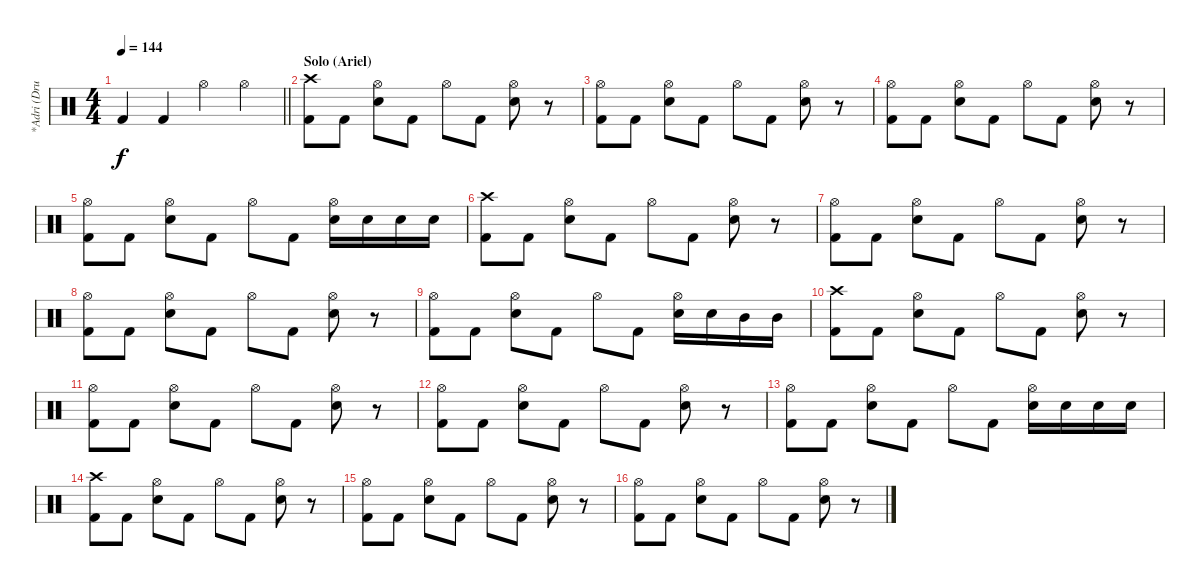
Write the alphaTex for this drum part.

\track ("*Adri (Drum)" "*Adri (Dru") {instrument percussion}
\staff {score}
\articulation defaults
\ts (4 4)
\tempo 144
\clef neutral
\barLineRight lightlight
\ks c "Kick (hit) 2".4{dy f} "Kick (hit) 2".4 "Hi-Hat (open)".4 "Hi-Hat (open)".4
|
\section ("" "Solo (Ariel)")
("Crash high (hit)" "Kick (hit) 2").8 "Kick (hit) 2".8 ("Hi-Hat (open)" "Electric Snare (hit)").8 "Kick (hit) 2".8 "Hi-Hat (open)".8 "Kick (hit) 2".8 ("Hi-Hat (open)" "Electric Snare (hit)").8 r.8 |
("Hi-Hat (open)" "Kick (hit) 2").8 "Kick (hit) 2".8 ("Hi-Hat (open)" "Electric Snare (hit)").8 "Kick (hit) 2".8 "Hi-Hat (open)".8 "Kick (hit) 2".8 ("Hi-Hat (open)" "Electric Snare (hit)").8 r.8 |
("Hi-Hat (open)" "Kick (hit) 2").8 "Kick (hit) 2".8 ("Hi-Hat (open)" "Electric Snare (hit)").8 "Kick (hit) 2".8 "Hi-Hat (open)".8 "Kick (hit) 2".8 ("Hi-Hat (open)" "Electric Snare (hit)").8 r.8 |
("Hi-Hat (open)" "Kick (hit) 2").8 "Kick (hit) 2".8 ("Hi-Hat (open)" "Electric Snare (hit)").8 "Kick (hit) 2".8 "Hi-Hat (open)".8 "Kick (hit) 2".8 ("Hi-Hat (open)" "Electric Snare (hit)").16 "Electric Snare (hit)".16 "Electric Snare (hit)".16 "Electric Snare (hit)".16 |
("Crash high (hit)" "Kick (hit) 2").8 "Kick (hit) 2".8 ("Hi-Hat (open)" "Electric Snare (hit)").8 "Kick (hit) 2".8 "Hi-Hat (open)".8 "Kick (hit) 2".8 ("Hi-Hat (open)" "Electric Snare (hit)").8 r.8 |
("Hi-Hat (open)" "Kick (hit) 2").8 "Kick (hit) 2".8 ("Hi-Hat (open)" "Electric Snare (hit)").8 "Kick (hit) 2".8 "Hi-Hat (open)".8 "Kick (hit) 2".8 ("Hi-Hat (open)" "Electric Snare (hit)").8 r.8 |
("Hi-Hat (open)" "Kick (hit) 2").8 "Kick (hit) 2".8 ("Hi-Hat (open)" "Electric Snare (hit)").8 "Kick (hit) 2".8 "Hi-Hat (open)".8 "Kick (hit) 2".8 ("Hi-Hat (open)" "Electric Snare (hit)").8 r.8 |
("Hi-Hat (open)" "Kick (hit) 2").8 "Kick (hit) 2".8 ("Hi-Hat (open)" "Electric Snare (hit)").8 "Kick (hit) 2".8 "Hi-Hat (open)".8 "Kick (hit) 2".8 ("Hi-Hat (open)" "Electric Snare (hit)").16 "Electric Snare (hit)".16 "Mid Tom (hit)".16 "Mid Tom (hit)".16 |
("Crash high (hit)" "Kick (hit) 2").8 "Kick (hit) 2".8 ("Hi-Hat (open)" "Electric Snare (hit)").8 "Kick (hit) 2".8 "Hi-Hat (open)".8 "Kick (hit) 2".8 ("Hi-Hat (open)" "Electric Snare (hit)").8 r.8 |
("Hi-Hat (open)" "Kick (hit) 2").8 "Kick (hit) 2".8 ("Hi-Hat (open)" "Electric Snare (hit)").8 "Kick (hit) 2".8 "Hi-Hat (open)".8 "Kick (hit) 2".8 ("Hi-Hat (open)" "Electric Snare (hit)").8 r.8 |
("Hi-Hat (open)" "Kick (hit) 2").8 "Kick (hit) 2".8 ("Hi-Hat (open)" "Electric Snare (hit)").8 "Kick (hit) 2".8 "Hi-Hat (open)".8 "Kick (hit) 2".8 ("Hi-Hat (open)" "Electric Snare (hit)").8 r.8 |
("Hi-Hat (open)" "Kick (hit) 2").8 "Kick (hit) 2".8 ("Hi-Hat (open)" "Electric Snare (hit)").8 "Kick (hit) 2".8 "Hi-Hat (open)".8 "Kick (hit) 2".8 ("Hi-Hat (open)" "Electric Snare (hit)").16 "Electric Snare (hit)".16 "Electric Snare (hit)".16 "Electric Snare (hit)".16 |
("Crash high (hit)" "Kick (hit) 2").8 "Kick (hit) 2".8 ("Hi-Hat (open)" "Electric Snare (hit)").8 "Kick (hit) 2".8 "Hi-Hat (open)".8 "Kick (hit) 2".8 ("Hi-Hat (open)" "Electric Snare (hit)").8 r.8 |
("Hi-Hat (open)" "Kick (hit) 2").8 "Kick (hit) 2".8 ("Hi-Hat (open)" "Electric Snare (hit)").8 "Kick (hit) 2".8 "Hi-Hat (open)".8 "Kick (hit) 2".8 ("Hi-Hat (open)" "Electric Snare (hit)").8 r.8 |
("Hi-Hat (open)" "Kick (hit) 2").8 "Kick (hit) 2".8 ("Hi-Hat (open)" "Electric Snare (hit)").8 "Kick (hit) 2".8 "Hi-Hat (open)".8 "Kick (hit) 2".8 ("Hi-Hat (open)" "Electric Snare (hit)").8 r.8
